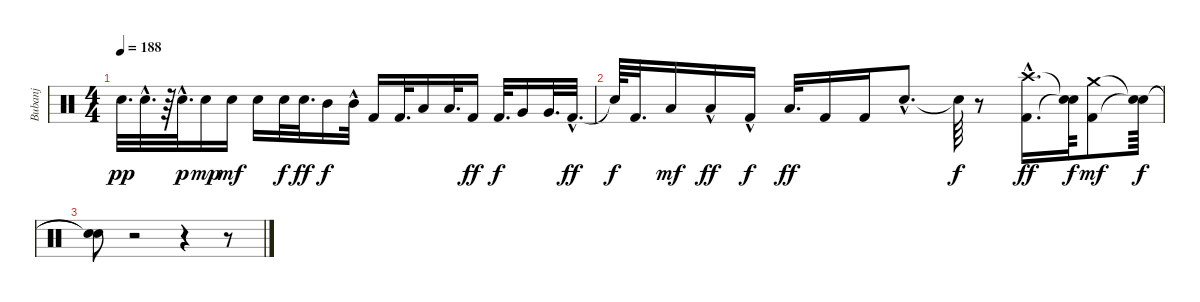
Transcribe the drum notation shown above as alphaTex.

\track ("Bubanj" "Bubanj") {instrument percussion}
\staff {score}
\articulation defaults
\ts (4 4)
\tempo 188
\clef neutral
\ks c "Electric Snare (hit)".32{d dy pp} "Electric Snare (hit)"{hac}.32{d}
r.64 "Electric Snare (hit)"{hac}.32{d dy p} "Electric Snare (hit)".16{dy mp} "Electric Snare (hit)".16{dy mf} "Electric Snare (hit)".16 "Electric Snare (hit)".32{dy f} "Electric Snare (hit)".32{d dy ff} "Mid Tom (hit)".16{dy f} "Mid Tom (hit)"{hac}.32 "Kick (hit) 2".16 "Kick (hit) 2".32{d} "Low Tom (hit)".16 "Low Tom (hit)".32{d} "Kick (hit) 2".16{dy ff} "Kick (hit) 2".32{d dy f} "Very Low Tom (hit)".16 "Very Low Tom (hit)".32{d} "Kick (hit) 2"{hac}.32{d dy ff} |
"Snare (hit)"{t}.64{dy f} "Kick (hit) 2".32{d} "Low Floor Tom (hit)".16{dy mf} "Low Floor Tom (hit)"{hac}.16{dy ff} "Kick (hit) 2"{hac}.16{dy f} "Low Floor Tom (hit)".32{d dy ff} "Kick (hit) 2".16 "Kick (hit) 2".16 "Electric Snare (hit)"{hac}.8{d} "Snare (hit)"{t}.64{dy f} r.8 ("Crash high (hit)"{hac} "Kick (hit) 2"{hac}).16{d dy ff} ("Snare (hit)"{t} "Snare (hit)"{t}).64{dy f} ("Kick (hit) 2" "Crash medium (hit)").8{dy mf} ("Snare (hit)"{t} "Snare (hit)"{t}).64{dy f} |
("Snare (hit)"{t} "Snare (hit)"{t}).8 r.2 r.4 r.8
